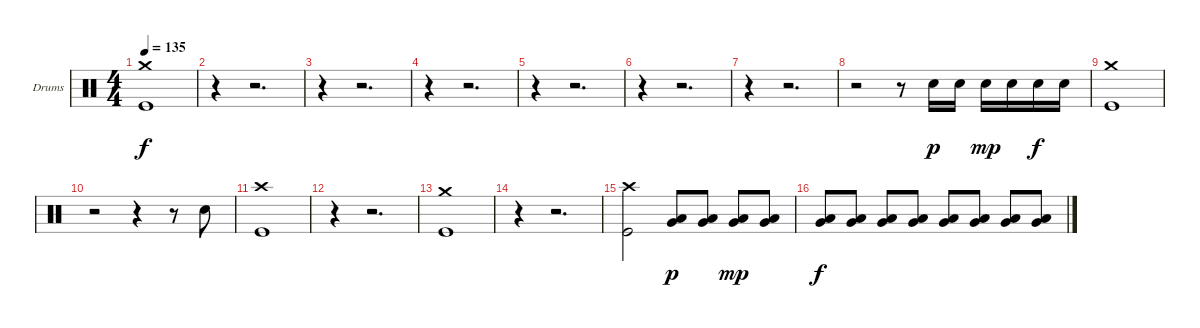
\defaultSystemsLayout 4
\bracketExtendMode groupsimilarinstruments
\firstSystemTrackNameOrientation horizontal
\otherSystemsTrackNameOrientation horizontal
\track ("Drumkit" "Drums") {instrument percussion}
\staff {score}
\articulation defaults
\ts (4 4)
\tempo 135
\clef neutral
\scale
0.5
\ks c
("Crash medium (hit)" "Kick (hit)").1{dy f} |
\scale
0.5 r.4 r.2{d} |
\scale
0.5 r.4 r.2{d} |
\scale
0.5 r.4 r.2{d} |
\scale
0.5 r.4 r.2{d} |
\scale
0.5 r.4 r.2{d} |
\scale
0.5 r.4 r.2{d} |
\scale
0.5 r.2 r.8 "Snare (hit) 2".16{dy p} "Snare (hit) 2".16 "Snare (hit) 2".16{dy mp} "Snare (hit) 2".16 "Snare (hit) 2".16{dy f} "Snare (hit) 2".16 |
\scale
0.5 ("Crash medium (hit)" "Kick (hit)").1 |
\scale
0.5 r.2 r.4 r.8 "Snare (hit) 2".8 |
\scale
0.5 ("Crash high (hit)" "Kick (hit)").1 |
\scale
0.5 r.4 r.2{d} |
\scale
0.5 ("Crash medium (hit)" "Kick (hit)").1 |
\scale
0.5 r.4 r.2{d} |
\scale
0.5 ("Crash high (hit)" "Kick (hit)").2 ("Low Tom (hit)" "Very Low Tom (hit)").8{dy p} ("Low Tom (hit)" "Very Low Tom (hit)").8 ("Low Tom (hit)" "Very Low Tom (hit)").8{dy mp} ("Low Tom (hit)" "Very Low Tom (hit)").8 |
\scale
0.5 ("Low Tom (hit)" "Very Low Tom (hit)").8{dy f} ("Low Tom (hit)" "Very Low Tom (hit)").8 ("Low Tom (hit)" "Very Low Tom (hit)").8 ("Low Tom (hit)" "Very Low Tom (hit)").8 ("Low Tom (hit)" "Very Low Tom (hit)").8 ("Low Tom (hit)" "Very Low Tom (hit)").8 ("Low Tom (hit)" "Very Low Tom (hit)").8 ("Low Tom (hit)" "Very Low Tom (hit)").8
